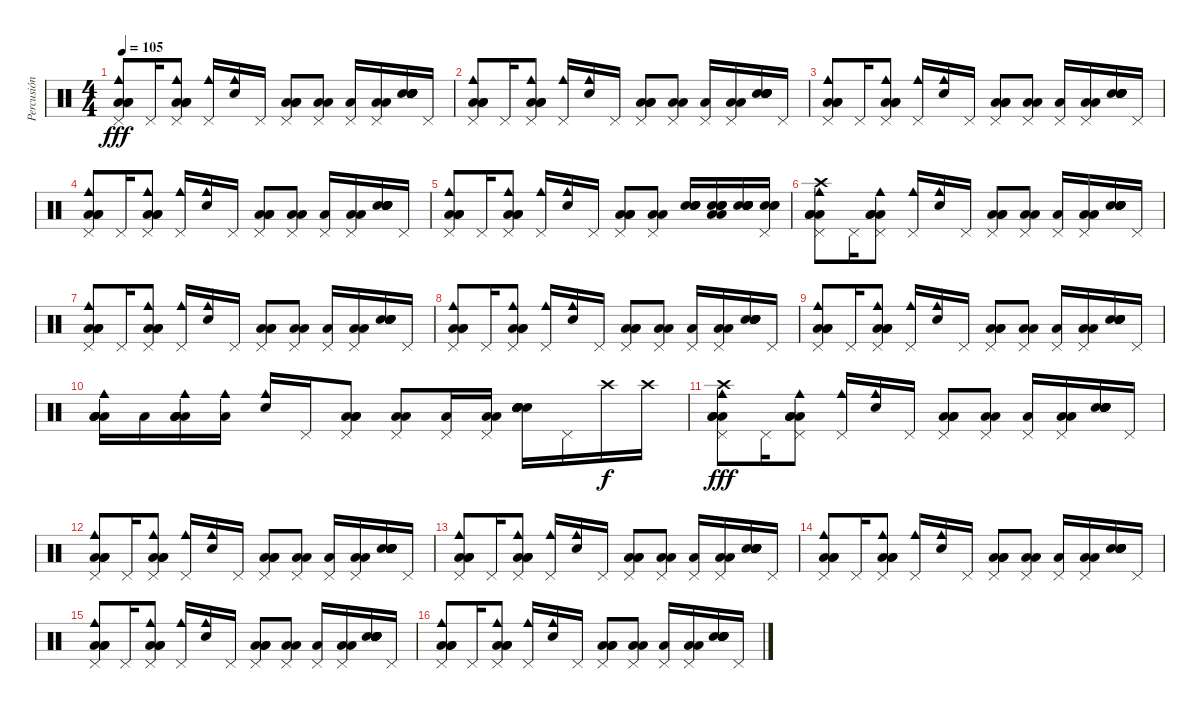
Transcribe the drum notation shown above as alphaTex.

\track ("Percusión" "Percusión") {instrument percussion}
\staff {score}
\articulation defaults
\ts (4 4)
\tempo 105
\clef neutral
\ks c
("Cowbell medium (hit)" "Low Tom (hit)" "Pedal Hi-Hat (hit)" "Low Tom (hit)" "Low Tom (hit)").8{dy fff} "Pedal Hi-Hat (hit)".16 ("Cowbell medium (hit)" "Low Tom (hit)" "Pedal Hi-Hat (hit)" "Low Tom (hit)" "Low Tom (hit)").8 ("Cowbell medium (hit)" "Pedal Hi-Hat (hit)").16 ("Cowbell medium (hit)" "Snare (hit) 2").16 "Pedal Hi-Hat (hit)".16 ("Low Tom (hit)" "Pedal Hi-Hat (hit)" "Low Tom (hit)" "Low Tom (hit)").8 ("Pedal Hi-Hat (hit)" "Low Tom (hit)" "Low Tom (hit)").8 ("Low Tom (hit)" "Pedal Hi-Hat (hit)").16 ("Pedal Hi-Hat (hit)" "Low Tom (hit)" "Low Tom (hit)").16 ("Snare (hit) 2" "Snare (hit) 2" "Snare (hit) 2" "Snare (hit) 2" "Snare (hit) 2" "Snare (hit) 2").16 "Pedal Hi-Hat (hit)".16 |
("Cowbell medium (hit)" "Low Tom (hit)" "Pedal Hi-Hat (hit)" "Low Tom (hit)" "Low Tom (hit)").8 "Pedal Hi-Hat (hit)".16 ("Cowbell medium (hit)" "Low Tom (hit)" "Pedal Hi-Hat (hit)" "Low Tom (hit)" "Low Tom (hit)").8 ("Cowbell medium (hit)" "Pedal Hi-Hat (hit)").16 ("Cowbell medium (hit)" "Snare (hit) 2").16 "Pedal Hi-Hat (hit)".16 ("Low Tom (hit)" "Pedal Hi-Hat (hit)" "Low Tom (hit)" "Low Tom (hit)").8 ("Pedal Hi-Hat (hit)" "Low Tom (hit)" "Low Tom (hit)").8 ("Low Tom (hit)" "Pedal Hi-Hat (hit)").16 ("Pedal Hi-Hat (hit)" "Low Tom (hit)" "Low Tom (hit)").16 ("Snare (hit) 2" "Snare (hit) 2" "Snare (hit) 2" "Snare (hit) 2" "Snare (hit) 2" "Snare (hit) 2").16 "Pedal Hi-Hat (hit)".16 |
("Cowbell medium (hit)" "Low Tom (hit)" "Pedal Hi-Hat (hit)" "Low Tom (hit)" "Low Tom (hit)").8 "Pedal Hi-Hat (hit)".16 ("Cowbell medium (hit)" "Low Tom (hit)" "Pedal Hi-Hat (hit)" "Low Tom (hit)" "Low Tom (hit)").8 ("Cowbell medium (hit)" "Pedal Hi-Hat (hit)").16 ("Cowbell medium (hit)" "Snare (hit) 2").16 "Pedal Hi-Hat (hit)".16 ("Low Tom (hit)" "Pedal Hi-Hat (hit)" "Low Tom (hit)" "Low Tom (hit)").8 ("Pedal Hi-Hat (hit)" "Low Tom (hit)" "Low Tom (hit)").8 ("Low Tom (hit)" "Pedal Hi-Hat (hit)").16 ("Pedal Hi-Hat (hit)" "Low Tom (hit)" "Low Tom (hit)").16 ("Snare (hit) 2" "Snare (hit) 2" "Snare (hit) 2" "Snare (hit) 2" "Snare (hit) 2" "Snare (hit) 2").16 "Pedal Hi-Hat (hit)".16 |
("Cowbell medium (hit)" "Low Tom (hit)" "Pedal Hi-Hat (hit)" "Low Tom (hit)" "Low Tom (hit)").8 "Pedal Hi-Hat (hit)".16 ("Cowbell medium (hit)" "Low Tom (hit)" "Pedal Hi-Hat (hit)" "Low Tom (hit)" "Low Tom (hit)").8 ("Cowbell medium (hit)" "Pedal Hi-Hat (hit)").16 ("Cowbell medium (hit)" "Snare (hit) 2").16 "Pedal Hi-Hat (hit)".16 ("Low Tom (hit)" "Pedal Hi-Hat (hit)" "Low Tom (hit)" "Low Tom (hit)").8 ("Pedal Hi-Hat (hit)" "Low Tom (hit)" "Low Tom (hit)").8 ("Low Tom (hit)" "Pedal Hi-Hat (hit)").16 ("Pedal Hi-Hat (hit)" "Low Tom (hit)" "Low Tom (hit)").16 ("Snare (hit) 2" "Snare (hit) 2" "Snare (hit) 2" "Snare (hit) 2" "Snare (hit) 2" "Snare (hit) 2").16 "Pedal Hi-Hat (hit)".16 |
("Cowbell medium (hit)" "Low Tom (hit)" "Pedal Hi-Hat (hit)" "Low Tom (hit)" "Low Tom (hit)").8 "Pedal Hi-Hat (hit)".16 ("Cowbell medium (hit)" "Low Tom (hit)" "Pedal Hi-Hat (hit)" "Low Tom (hit)" "Low Tom (hit)").8 ("Cowbell medium (hit)" "Pedal Hi-Hat (hit)").16 ("Cowbell medium (hit)" "Snare (hit) 2").16 "Pedal Hi-Hat (hit)".16 ("Low Tom (hit)" "Pedal Hi-Hat (hit)" "Low Tom (hit)" "Low Tom (hit)").8 ("Pedal Hi-Hat (hit)" "Low Tom (hit)" "Low Tom (hit)").8 ("Snare (hit) 2" "Snare (hit) 2" "Snare (hit) 2" "Snare (hit) 2").16 ("Snare (hit) 2" "Snare (hit) 2" "Snare (hit) 2" "Snare (hit) 2" "Low Tom (hit)" "Low Tom (hit)").16{bd 240} ("Snare (hit) 2" "Snare (hit) 2" "Snare (hit) 2" "Snare (hit) 2" "Snare (hit) 2" "Snare (hit) 2").16{bu 240} ("Snare (hit) 2" "Snare (hit) 2" "Snare (hit) 2" "Pedal Hi-Hat (hit)").16{bd 240} |
("Cowbell medium (hit)" "Crash high (hit)" "Low Tom (hit)" "Pedal Hi-Hat (hit)" "Low Tom (hit)" "Low Tom (hit)").8 "Pedal Hi-Hat (hit)".16 ("Cowbell medium (hit)" "Low Tom (hit)" "Pedal Hi-Hat (hit)" "Low Tom (hit)" "Low Tom (hit)").8 ("Cowbell medium (hit)" "Pedal Hi-Hat (hit)").16 ("Cowbell medium (hit)" "Snare (hit) 2").16 "Pedal Hi-Hat (hit)".16 ("Low Tom (hit)" "Pedal Hi-Hat (hit)" "Low Tom (hit)" "Low Tom (hit)").8 ("Pedal Hi-Hat (hit)" "Low Tom (hit)" "Low Tom (hit)").8 ("Low Tom (hit)" "Pedal Hi-Hat (hit)").16 ("Pedal Hi-Hat (hit)" "Low Tom (hit)" "Low Tom (hit)").16 ("Snare (hit) 2" "Snare (hit) 2" "Snare (hit) 2" "Snare (hit) 2" "Snare (hit) 2" "Snare (hit) 2").16 "Pedal Hi-Hat (hit)".16 |
("Cowbell medium (hit)" "Low Tom (hit)" "Pedal Hi-Hat (hit)" "Low Tom (hit)" "Low Tom (hit)").8 "Pedal Hi-Hat (hit)".16 ("Cowbell medium (hit)" "Low Tom (hit)" "Pedal Hi-Hat (hit)" "Low Tom (hit)" "Low Tom (hit)").8 ("Cowbell medium (hit)" "Pedal Hi-Hat (hit)").16 ("Cowbell medium (hit)" "Snare (hit) 2").16 "Pedal Hi-Hat (hit)".16 ("Low Tom (hit)" "Pedal Hi-Hat (hit)" "Low Tom (hit)" "Low Tom (hit)").8 ("Pedal Hi-Hat (hit)" "Low Tom (hit)" "Low Tom (hit)").8 ("Low Tom (hit)" "Pedal Hi-Hat (hit)").16 ("Pedal Hi-Hat (hit)" "Low Tom (hit)" "Low Tom (hit)").16 ("Snare (hit) 2" "Snare (hit) 2" "Snare (hit) 2" "Snare (hit) 2" "Snare (hit) 2" "Snare (hit) 2").16 "Pedal Hi-Hat (hit)".16 |
("Cowbell medium (hit)" "Low Tom (hit)" "Pedal Hi-Hat (hit)" "Low Tom (hit)" "Low Tom (hit)").8 "Pedal Hi-Hat (hit)".16 ("Cowbell medium (hit)" "Low Tom (hit)" "Pedal Hi-Hat (hit)" "Low Tom (hit)" "Low Tom (hit)").8 ("Cowbell medium (hit)" "Pedal Hi-Hat (hit)").16 ("Cowbell medium (hit)" "Snare (hit) 2").16 "Pedal Hi-Hat (hit)".16 ("Low Tom (hit)" "Pedal Hi-Hat (hit)" "Low Tom (hit)" "Low Tom (hit)").8 ("Pedal Hi-Hat (hit)" "Low Tom (hit)" "Low Tom (hit)").8 ("Low Tom (hit)" "Pedal Hi-Hat (hit)").16 ("Pedal Hi-Hat (hit)" "Low Tom (hit)" "Low Tom (hit)").16 ("Snare (hit) 2" "Snare (hit) 2" "Snare (hit) 2" "Snare (hit) 2" "Snare (hit) 2" "Snare (hit) 2").16 "Pedal Hi-Hat (hit)".16 |
("Cowbell medium (hit)" "Low Tom (hit)" "Pedal Hi-Hat (hit)" "Low Tom (hit)" "Low Tom (hit)").8 "Pedal Hi-Hat (hit)".16 ("Cowbell medium (hit)" "Low Tom (hit)" "Pedal Hi-Hat (hit)" "Low Tom (hit)" "Low Tom (hit)").8 ("Cowbell medium (hit)" "Pedal Hi-Hat (hit)").16 ("Cowbell medium (hit)" "Snare (hit) 2").16 "Pedal Hi-Hat (hit)".16 ("Low Tom (hit)" "Pedal Hi-Hat (hit)" "Low Tom (hit)" "Low Tom (hit)").8 ("Pedal Hi-Hat (hit)" "Low Tom (hit)" "Low Tom (hit)").8 ("Low Tom (hit)" "Pedal Hi-Hat (hit)").16 ("Pedal Hi-Hat (hit)" "Low Tom (hit)" "Low Tom (hit)").16 ("Snare (hit) 2" "Snare (hit) 2" "Snare (hit) 2" "Snare (hit) 2" "Snare (hit) 2" "Snare (hit) 2").16 "Pedal Hi-Hat (hit)".16 |
("Cowbell medium (hit)" "Low Tom (hit)" "Low Tom (hit)" "Low Tom (hit)" "Low Tom (hit)").16 "Low Tom (hit)".16 ("Cowbell medium (hit)" "Low Tom (hit)" "Low Tom (hit)" "Low Tom (hit)" "Low Tom (hit)").16 ("Cowbell medium (hit)" "Low Tom (hit)").16 ("Cowbell medium (hit)" "Snare (hit) 2").16 "Pedal Hi-Hat (hit)".16 ("Low Tom (hit)" "Pedal Hi-Hat (hit)" "Low Tom (hit)" "Low Tom (hit)").8 ("Pedal Hi-Hat (hit)" "Low Tom (hit)" "Low Tom (hit)").8 ("Low Tom (hit)" "Pedal Hi-Hat (hit)").16 ("Pedal Hi-Hat (hit)" "Low Tom (hit)" "Low Tom (hit)").16 ("Snare (hit) 2" "Snare (hit) 2" "Snare (hit) 2" "Snare (hit) 2" "Snare (hit) 2" "Snare (hit) 2").16 "Pedal Hi-Hat (hit)".16 "Crash high (hit)".16{dy f} "Crash high (hit)".16 |
("Cowbell medium (hit)" "Crash high (hit)" "Low Tom (hit)" "Pedal Hi-Hat (hit)" "Low Tom (hit)" "Low Tom (hit)").8{dy fff} "Pedal Hi-Hat (hit)".16 ("Cowbell medium (hit)" "Low Tom (hit)" "Pedal Hi-Hat (hit)" "Low Tom (hit)" "Low Tom (hit)").8 ("Cowbell medium (hit)" "Pedal Hi-Hat (hit)").16 ("Cowbell medium (hit)" "Snare (hit) 2").16 "Pedal Hi-Hat (hit)".16 ("Low Tom (hit)" "Pedal Hi-Hat (hit)" "Low Tom (hit)" "Low Tom (hit)").8 ("Pedal Hi-Hat (hit)" "Low Tom (hit)" "Low Tom (hit)").8 ("Low Tom (hit)" "Pedal Hi-Hat (hit)").16 ("Pedal Hi-Hat (hit)" "Low Tom (hit)" "Low Tom (hit)").16 ("Snare (hit) 2" "Snare (hit) 2" "Snare (hit) 2" "Snare (hit) 2" "Snare (hit) 2" "Snare (hit) 2").16 "Pedal Hi-Hat (hit)".16 |
("Cowbell medium (hit)" "Low Tom (hit)" "Pedal Hi-Hat (hit)" "Low Tom (hit)" "Low Tom (hit)").8 "Pedal Hi-Hat (hit)".16 ("Cowbell medium (hit)" "Low Tom (hit)" "Pedal Hi-Hat (hit)" "Low Tom (hit)" "Low Tom (hit)").8 ("Cowbell medium (hit)" "Pedal Hi-Hat (hit)").16 ("Cowbell medium (hit)" "Snare (hit) 2").16 "Pedal Hi-Hat (hit)".16 ("Low Tom (hit)" "Pedal Hi-Hat (hit)" "Low Tom (hit)" "Low Tom (hit)").8 ("Pedal Hi-Hat (hit)" "Low Tom (hit)" "Low Tom (hit)").8 ("Low Tom (hit)" "Pedal Hi-Hat (hit)").16 ("Pedal Hi-Hat (hit)" "Low Tom (hit)" "Low Tom (hit)").16 ("Snare (hit) 2" "Snare (hit) 2" "Snare (hit) 2" "Snare (hit) 2" "Snare (hit) 2" "Snare (hit) 2").16 "Pedal Hi-Hat (hit)".16 |
("Cowbell medium (hit)" "Low Tom (hit)" "Pedal Hi-Hat (hit)" "Low Tom (hit)" "Low Tom (hit)").8 "Pedal Hi-Hat (hit)".16 ("Cowbell medium (hit)" "Low Tom (hit)" "Pedal Hi-Hat (hit)" "Low Tom (hit)" "Low Tom (hit)").8 ("Cowbell medium (hit)" "Pedal Hi-Hat (hit)").16 ("Cowbell medium (hit)" "Snare (hit) 2").16 "Pedal Hi-Hat (hit)".16 ("Low Tom (hit)" "Pedal Hi-Hat (hit)" "Low Tom (hit)" "Low Tom (hit)").8 ("Pedal Hi-Hat (hit)" "Low Tom (hit)" "Low Tom (hit)").8 ("Low Tom (hit)" "Pedal Hi-Hat (hit)").16 ("Pedal Hi-Hat (hit)" "Low Tom (hit)" "Low Tom (hit)").16 ("Snare (hit) 2" "Snare (hit) 2" "Snare (hit) 2" "Snare (hit) 2" "Snare (hit) 2" "Snare (hit) 2").16 "Pedal Hi-Hat (hit)".16 |
("Cowbell medium (hit)" "Low Tom (hit)" "Pedal Hi-Hat (hit)" "Low Tom (hit)" "Low Tom (hit)").8 "Pedal Hi-Hat (hit)".16 ("Cowbell medium (hit)" "Low Tom (hit)" "Pedal Hi-Hat (hit)" "Low Tom (hit)" "Low Tom (hit)").8 ("Cowbell medium (hit)" "Pedal Hi-Hat (hit)").16 ("Cowbell medium (hit)" "Snare (hit) 2").16 "Pedal Hi-Hat (hit)".16 ("Low Tom (hit)" "Pedal Hi-Hat (hit)" "Low Tom (hit)" "Low Tom (hit)").8 ("Pedal Hi-Hat (hit)" "Low Tom (hit)" "Low Tom (hit)").8 ("Low Tom (hit)" "Pedal Hi-Hat (hit)").16 ("Pedal Hi-Hat (hit)" "Low Tom (hit)" "Low Tom (hit)").16 ("Snare (hit) 2" "Snare (hit) 2" "Snare (hit) 2" "Snare (hit) 2" "Snare (hit) 2" "Snare (hit) 2").16 "Pedal Hi-Hat (hit)".16 |
("Cowbell medium (hit)" "Low Tom (hit)" "Pedal Hi-Hat (hit)" "Low Tom (hit)" "Low Tom (hit)").8 "Pedal Hi-Hat (hit)".16 ("Cowbell medium (hit)" "Low Tom (hit)" "Pedal Hi-Hat (hit)" "Low Tom (hit)" "Low Tom (hit)").8 ("Cowbell medium (hit)" "Pedal Hi-Hat (hit)").16 ("Cowbell medium (hit)" "Snare (hit) 2").16 "Pedal Hi-Hat (hit)".16 ("Low Tom (hit)" "Pedal Hi-Hat (hit)" "Low Tom (hit)" "Low Tom (hit)").8 ("Pedal Hi-Hat (hit)" "Low Tom (hit)" "Low Tom (hit)").8 ("Low Tom (hit)" "Pedal Hi-Hat (hit)").16 ("Pedal Hi-Hat (hit)" "Low Tom (hit)" "Low Tom (hit)").16 ("Snare (hit) 2" "Snare (hit) 2" "Snare (hit) 2" "Snare (hit) 2" "Snare (hit) 2" "Snare (hit) 2").16 "Pedal Hi-Hat (hit)".16 |
("Cowbell medium (hit)" "Low Tom (hit)" "Pedal Hi-Hat (hit)" "Low Tom (hit)" "Low Tom (hit)").8 "Pedal Hi-Hat (hit)".16 ("Cowbell medium (hit)" "Low Tom (hit)" "Pedal Hi-Hat (hit)" "Low Tom (hit)" "Low Tom (hit)").8 ("Cowbell medium (hit)" "Pedal Hi-Hat (hit)").16 ("Cowbell medium (hit)" "Snare (hit) 2").16 "Pedal Hi-Hat (hit)".16 ("Low Tom (hit)" "Pedal Hi-Hat (hit)" "Low Tom (hit)" "Low Tom (hit)").8 ("Pedal Hi-Hat (hit)" "Low Tom (hit)" "Low Tom (hit)").8 ("Low Tom (hit)" "Pedal Hi-Hat (hit)").16 ("Pedal Hi-Hat (hit)" "Low Tom (hit)" "Low Tom (hit)").16 ("Snare (hit) 2" "Snare (hit) 2" "Snare (hit) 2" "Snare (hit) 2" "Snare (hit) 2" "Snare (hit) 2").16 "Pedal Hi-Hat (hit)".16
